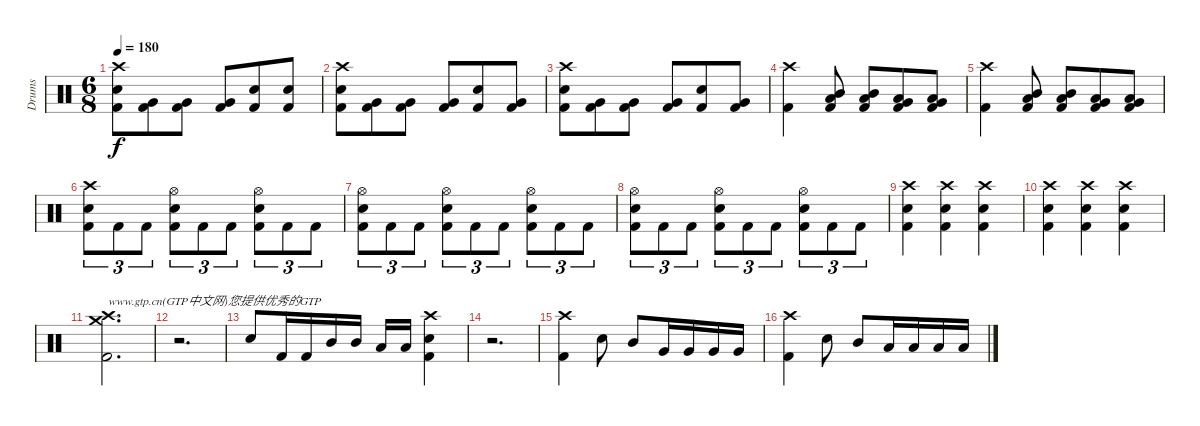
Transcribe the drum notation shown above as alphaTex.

\track ("Drums" "Drums") {instrument percussion}
\staff {score}
\articulation defaults
\ts (6 8)
\tempo 180
\clef neutral
\ks c
("Crash high (hit)" "Snare (hit) 2" "Kick (hit) 2").8{dy f} ("Very Low Tom (hit)" "Kick (hit) 2").8 ("Very Low Tom (hit)" "Kick (hit) 2").8 ("Very Low Tom (hit)" "Kick (hit) 2").8 ("Snare (hit) 2" "Kick (hit) 2").8 ("Snare (hit) 2" "Kick (hit) 2").8 |
("Crash high (hit)" "Snare (hit) 2" "Kick (hit) 2").8 ("Very Low Tom (hit)" "Kick (hit) 2").8 ("Very Low Tom (hit)" "Kick (hit) 2").8 ("Very Low Tom (hit)" "Kick (hit) 2").8 ("Snare (hit) 2" "Kick (hit) 2").8 ("Very Low Tom (hit)" "Kick (hit) 2").8 |
("Crash high (hit)" "Snare (hit) 2" "Kick (hit) 2").8 ("Very Low Tom (hit)" "Kick (hit) 2").8 ("Very Low Tom (hit)" "Kick (hit) 2").8 ("Very Low Tom (hit)" "Kick (hit) 2").8 ("Snare (hit) 2" "Kick (hit) 2").8 ("Very Low Tom (hit)" "Kick (hit) 2").8 |
("Crash high (hit)" "Kick (hit) 2").4 ("Mid Tom (hit)" "Low Tom (hit)" "Kick (hit) 2").8 ("Mid Tom (hit)" "Low Tom (hit)" "Kick (hit) 2").8 ("Low Tom (hit)" "Very Low Tom (hit)" "Kick (hit) 2").8 ("Low Tom (hit)" "Very Low Tom (hit)" "Kick (hit) 2").8 |
("Crash high (hit)" "Kick (hit) 2").4 ("Mid Tom (hit)" "Low Tom (hit)" "Kick (hit) 2").8 ("Mid Tom (hit)" "Low Tom (hit)" "Kick (hit) 2").8 ("Low Tom (hit)" "Very Low Tom (hit)" "Kick (hit) 2").8 ("Low Tom (hit)" "Very Low Tom (hit)" "Kick (hit) 2").8 |
("Crash high (hit)" "Snare (hit) 2" "Kick (hit) 2").8{tu (3 2)} "Kick (hit) 2".8{tu (3 2)} "Kick (hit) 2".8{tu (3 2)} ("Hi-Hat (open)" "Snare (hit) 2" "Kick (hit) 2").8{tu (3 2)} "Kick (hit) 2".8{tu (3 2)} "Kick (hit) 2".8{tu (3 2)} ("Hi-Hat (open)" "Snare (hit) 2" "Kick (hit) 2").8{tu (3 2)} "Kick (hit) 2".8{tu (3 2)} "Kick (hit) 2".8{tu (3 2)} |
("Hi-Hat (open)" "Snare (hit) 2" "Kick (hit) 2").8{tu (3 2)} "Kick (hit) 2".8{tu (3 2)} "Kick (hit) 2".8{tu (3 2)} ("Hi-Hat (open)" "Snare (hit) 2" "Kick (hit) 2").8{tu (3 2)} "Kick (hit) 2".8{tu (3 2)} "Kick (hit) 2".8{tu (3 2)} ("Hi-Hat (open)" "Snare (hit) 2" "Kick (hit) 2").8{tu (3 2)} "Kick (hit) 2".8{tu (3 2)} "Kick (hit) 2".8{tu (3 2)} |
("Hi-Hat (open)" "Snare (hit) 2" "Kick (hit) 2").8{tu (3 2)} "Kick (hit) 2".8{tu (3 2)} "Kick (hit) 2".8{tu (3 2)} ("Hi-Hat (open)" "Snare (hit) 2" "Kick (hit) 2").8{tu (3 2)} "Kick (hit) 2".8{tu (3 2)} "Kick (hit) 2".8{tu (3 2)} ("Hi-Hat (open)" "Snare (hit) 2" "Kick (hit) 2").8{tu (3 2)} "Kick (hit) 2".8{tu (3 2)} "Kick (hit) 2".8{tu (3 2)} |
("Crash high (hit)" "Snare (hit) 2" "Kick (hit) 2").4 ("Crash high (hit)" "Snare (hit) 2" "Kick (hit) 2").4 ("Crash high (hit)" "Snare (hit) 2" "Kick (hit) 2").4 |
("Crash high (hit)" "Snare (hit) 2" "Kick (hit) 2").4 ("Crash high (hit)" "Snare (hit) 2" "Kick (hit) 2").4 ("Crash high (hit)" "Snare (hit) 2" "Kick (hit) 2").4 |
("Crash high (hit)" "Crash medium (hit)" "Kick (hit) 2").2{d txt "www.gtp.cn(GTP中文网)您提供优秀的GTP"} |
r.2{d} |
"Snare (hit) 2".8 "Kick (hit) 2".16 "Kick (hit) 2".16 "Mid Tom (hit)".16 "Mid Tom (hit)".16 "Low Tom (hit)".16 "Low Tom (hit)".16 ("Crash high (hit)" "Snare (hit) 2" "Kick (hit) 2").4 |
r.2{d} |
("Crash high (hit)" "Kick (hit) 2").4 "Snare (hit) 2".8 "Mid Tom (hit)".8 "Very Low Tom (hit)".16 "Very Low Tom (hit)".16 "Very Low Tom (hit)".16 "Very Low Tom (hit)".16 |
("Crash high (hit)" "Kick (hit) 2").4 "Snare (hit) 2".8 "Mid Tom (hit)".8 "Low Tom (hit)".16 "Low Tom (hit)".16 "Low Tom (hit)".16 "Low Tom (hit)".16
